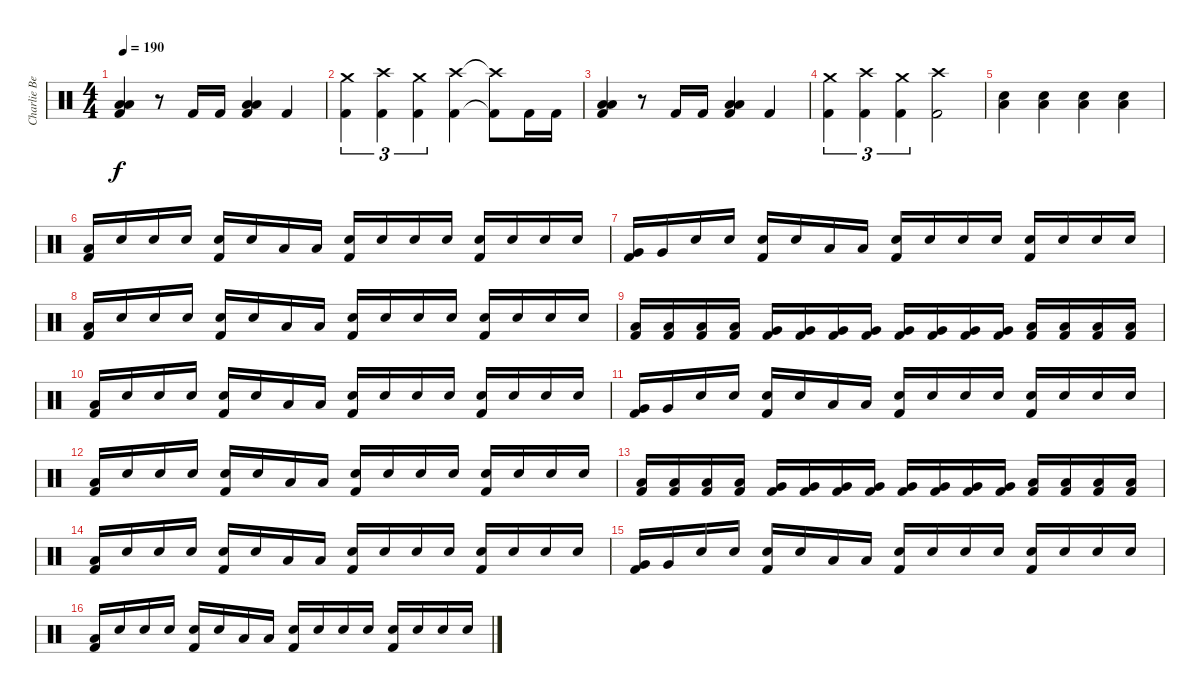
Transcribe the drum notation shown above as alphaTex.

\track ("Charlie Benante" "Charlie Be") {instrument percussion}
\staff {score}
\articulation defaults
\ts (4 4)
\tempo 190
\clef neutral
\ks c
("Low Floor Tom (hit)" "Low Tom (hit)" "Kick (hit) 2").4{dy f} r.8 "Kick (hit) 2".16 "Kick (hit) 2".16 ("Low Floor Tom (hit)" "Low Tom (hit)" "Kick (hit) 2").4 "Kick (hit) 2".4 |
("Crash medium (hit)" "Kick (hit) 2").4{tu (3 2)} ("Crash high (hit)" "Kick (hit) 2").4{tu (3 2)} ("Crash medium (hit)" "Kick (hit) 2").4{tu (3 2)} ("Crash high (hit)" "Kick (hit) 2").4 ("Crash high (hit)"{t} "Kick (hit) 2"{t}).8 "Kick (hit) 2".16 "Kick (hit) 2".16 |
("Low Floor Tom (hit)" "Low Tom (hit)" "Kick (hit) 2").4 r.8 "Kick (hit) 2".16 "Kick (hit) 2".16 ("Low Floor Tom (hit)" "Low Tom (hit)" "Kick (hit) 2").4 "Kick (hit) 2".4 |
("Crash medium (hit)" "Kick (hit) 2").4{tu (3 2)} ("Crash high (hit)" "Kick (hit) 2").4{tu (3 2)} ("Crash medium (hit)" "Kick (hit) 2").4{tu (3 2)} ("Crash high (hit)" "Kick (hit) 2").2 |
("Low Floor Tom (hit)" "Snare (hit) 2").4 ("Low Floor Tom (hit)" "Snare (hit) 2").4 ("Low Floor Tom (hit)" "Snare (hit) 2").4 ("Low Floor Tom (hit)" "Snare (hit) 2").4 |
("Low Tom (hit)" "Kick (hit) 2").16 "Snare (hit) 2".16 "Snare (hit) 2".16 "Snare (hit) 2".16 ("Snare (hit) 2" "Kick (hit) 2").16 "Snare (hit) 2".16 "Low Tom (hit)".16 "Low Tom (hit)".16 ("Snare (hit) 2" "Kick (hit) 2").16 "Snare (hit) 2".16 "Snare (hit) 2".16 "Snare (hit) 2".16 ("Snare (hit) 2" "Kick (hit) 2").16 "Snare (hit) 2".16 "Snare (hit) 2".16 "Snare (hit) 2".16 |
("Very Low Tom (hit)" "Kick (hit) 2").16 "Very Low Tom (hit)".16 "Snare (hit) 2".16 "Snare (hit) 2".16 ("Snare (hit) 2" "Kick (hit) 2").16 "Snare (hit) 2".16 "Low Floor Tom (hit)".16 "Low Floor Tom (hit)".16 ("Snare (hit) 2" "Kick (hit) 2").16 "Snare (hit) 2".16 "Snare (hit) 2".16 "Snare (hit) 2".16 ("Snare (hit) 2" "Kick (hit) 2").16 "Snare (hit) 2".16 "Snare (hit) 2".16 "Snare (hit) 2".16 |
("Low Tom (hit)" "Kick (hit) 2").16 "Snare (hit) 2".16 "Snare (hit) 2".16 "Snare (hit) 2".16 ("Snare (hit) 2" "Kick (hit) 2").16 "Snare (hit) 2".16 "Low Tom (hit)".16 "Low Tom (hit)".16 ("Snare (hit) 2" "Kick (hit) 2").16 "Snare (hit) 2".16 "Snare (hit) 2".16 "Snare (hit) 2".16 ("Snare (hit) 2" "Kick (hit) 2").16 "Snare (hit) 2".16 "Snare (hit) 2".16 "Snare (hit) 2".16 |
("Low Tom (hit)" "Kick (hit) 2").16 ("Low Tom (hit)" "Kick (hit) 2").16 ("Low Tom (hit)" "Kick (hit) 2").16 ("Low Tom (hit)" "Kick (hit) 2").16 ("Very Low Tom (hit)" "Kick (hit) 2").16 ("Very Low Tom (hit)" "Kick (hit) 2").16 ("Very Low Tom (hit)" "Kick (hit) 2").16 ("Very Low Tom (hit)" "Kick (hit) 2").16 ("Very Low Tom (hit)" "Kick (hit) 2").16 ("Very Low Tom (hit)" "Kick (hit) 2").16 ("Very Low Tom (hit)" "Kick (hit) 2").16 ("Very Low Tom (hit)" "Kick (hit) 2").16 ("Low Floor Tom (hit)" "Kick (hit) 2").16 ("Low Floor Tom (hit)" "Kick (hit) 2").16 ("Low Floor Tom (hit)" "Kick (hit) 2").16 ("Low Floor Tom (hit)" "Kick (hit) 2").16 |
("Low Tom (hit)" "Kick (hit) 2").16 "Snare (hit) 2".16 "Snare (hit) 2".16 "Snare (hit) 2".16 ("Snare (hit) 2" "Kick (hit) 2").16 "Snare (hit) 2".16 "Low Tom (hit)".16 "Low Tom (hit)".16 ("Snare (hit) 2" "Kick (hit) 2").16 "Snare (hit) 2".16 "Snare (hit) 2".16 "Snare (hit) 2".16 ("Snare (hit) 2" "Kick (hit) 2").16 "Snare (hit) 2".16 "Snare (hit) 2".16 "Snare (hit) 2".16 |
("Very Low Tom (hit)" "Kick (hit) 2").16 "Very Low Tom (hit)".16 "Snare (hit) 2".16 "Snare (hit) 2".16 ("Snare (hit) 2" "Kick (hit) 2").16 "Snare (hit) 2".16 "Low Floor Tom (hit)".16 "Low Floor Tom (hit)".16 ("Snare (hit) 2" "Kick (hit) 2").16 "Snare (hit) 2".16 "Snare (hit) 2".16 "Snare (hit) 2".16 ("Snare (hit) 2" "Kick (hit) 2").16 "Snare (hit) 2".16 "Snare (hit) 2".16 "Snare (hit) 2".16 |
("Low Tom (hit)" "Kick (hit) 2").16 "Snare (hit) 2".16 "Snare (hit) 2".16 "Snare (hit) 2".16 ("Snare (hit) 2" "Kick (hit) 2").16 "Snare (hit) 2".16 "Low Tom (hit)".16 "Low Tom (hit)".16 ("Snare (hit) 2" "Kick (hit) 2").16 "Snare (hit) 2".16 "Snare (hit) 2".16 "Snare (hit) 2".16 ("Snare (hit) 2" "Kick (hit) 2").16 "Snare (hit) 2".16 "Snare (hit) 2".16 "Snare (hit) 2".16 |
("Low Tom (hit)" "Kick (hit) 2").16 ("Low Tom (hit)" "Kick (hit) 2").16 ("Low Tom (hit)" "Kick (hit) 2").16 ("Low Tom (hit)" "Kick (hit) 2").16 ("Very Low Tom (hit)" "Kick (hit) 2").16 ("Very Low Tom (hit)" "Kick (hit) 2").16 ("Very Low Tom (hit)" "Kick (hit) 2").16 ("Very Low Tom (hit)" "Kick (hit) 2").16 ("Very Low Tom (hit)" "Kick (hit) 2").16 ("Very Low Tom (hit)" "Kick (hit) 2").16 ("Very Low Tom (hit)" "Kick (hit) 2").16 ("Very Low Tom (hit)" "Kick (hit) 2").16 ("Low Floor Tom (hit)" "Kick (hit) 2").16 ("Low Floor Tom (hit)" "Kick (hit) 2").16 ("Low Floor Tom (hit)" "Kick (hit) 2").16 ("Low Floor Tom (hit)" "Kick (hit) 2").16 |
("Low Tom (hit)" "Kick (hit) 2").16 "Snare (hit) 2".16 "Snare (hit) 2".16 "Snare (hit) 2".16 ("Snare (hit) 2" "Kick (hit) 2").16 "Snare (hit) 2".16 "Low Tom (hit)".16 "Low Tom (hit)".16 ("Snare (hit) 2" "Kick (hit) 2").16 "Snare (hit) 2".16 "Snare (hit) 2".16 "Snare (hit) 2".16 ("Snare (hit) 2" "Kick (hit) 2").16 "Snare (hit) 2".16 "Snare (hit) 2".16 "Snare (hit) 2".16 |
("Very Low Tom (hit)" "Kick (hit) 2").16 "Very Low Tom (hit)".16 "Snare (hit) 2".16 "Snare (hit) 2".16 ("Snare (hit) 2" "Kick (hit) 2").16 "Snare (hit) 2".16 "Low Floor Tom (hit)".16 "Low Floor Tom (hit)".16 ("Snare (hit) 2" "Kick (hit) 2").16 "Snare (hit) 2".16 "Snare (hit) 2".16 "Snare (hit) 2".16 ("Snare (hit) 2" "Kick (hit) 2").16 "Snare (hit) 2".16 "Snare (hit) 2".16 "Snare (hit) 2".16 |
("Low Tom (hit)" "Kick (hit) 2").16 "Snare (hit) 2".16 "Snare (hit) 2".16 "Snare (hit) 2".16 ("Snare (hit) 2" "Kick (hit) 2").16 "Snare (hit) 2".16 "Low Tom (hit)".16 "Low Tom (hit)".16 ("Snare (hit) 2" "Kick (hit) 2").16 "Snare (hit) 2".16 "Snare (hit) 2".16 "Snare (hit) 2".16 ("Snare (hit) 2" "Kick (hit) 2").16 "Snare (hit) 2".16 "Snare (hit) 2".16 "Snare (hit) 2".16
